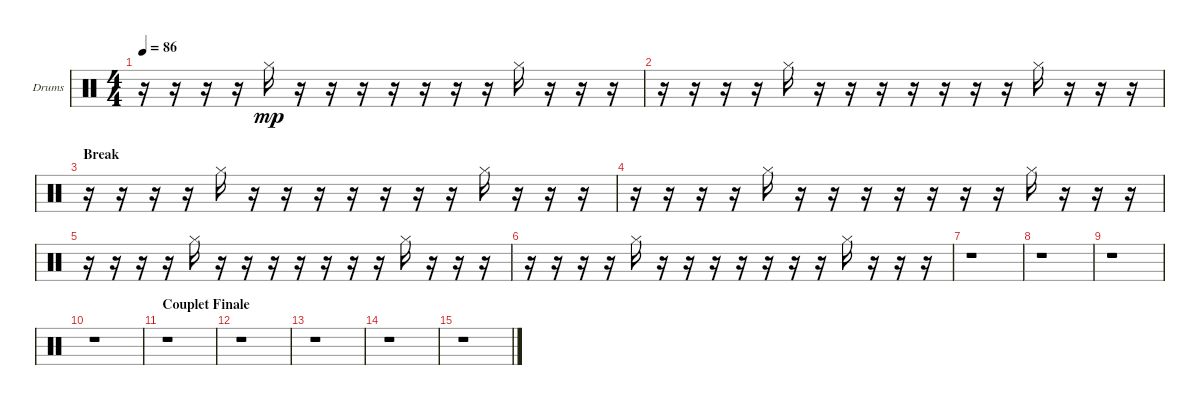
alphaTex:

\bracketExtendMode groupsimilarinstruments
\firstSystemTrackNameOrientation horizontal
\otherSystemsTrackNameOrientation horizontal
\track ("Drumkit" "Drums") {instrument percussion}
\staff {score}
\articulation defaults
\ts (4 4)
\tempo 86
\clef neutral
\ks c
r.16{dy mp} r.16 r.16 r.16 "Hi-Hat (closed)".16 r.16 r.16 r.16 r.16 r.16 r.16 r.16 "Hi-Hat (closed)".16 r.16 r.16 r.16 |
r.16 r.16 r.16 r.16 "Hi-Hat (closed)".16 r.16 r.16 r.16 r.16 r.16 r.16 r.16 "Hi-Hat (closed)".16 r.16 r.16 r.16 |
\section ("" "Break")
r.16 r.16 r.16 r.16 "Hi-Hat (closed)".16 r.16 r.16 r.16 r.16 r.16 r.16 r.16 "Hi-Hat (closed)".16 r.16 r.16 r.16 |
r.16 r.16 r.16 r.16 "Hi-Hat (closed)".16 r.16 r.16 r.16 r.16 r.16 r.16 r.16 "Hi-Hat (closed)".16 r.16 r.16 r.16 |
r.16 r.16 r.16 r.16 "Hi-Hat (closed)".16 r.16 r.16 r.16 r.16 r.16 r.16 r.16 "Hi-Hat (closed)".16 r.16 r.16 r.16 |
r.16 r.16 r.16 r.16 "Hi-Hat (closed)".16 r.16 r.16 r.16 r.16 r.16 r.16 r.16 "Hi-Hat (closed)".16 r.16 r.16 r.16 |
r.1 |
r.1 |
r.1 |
r.1 |
\section ("" "Couplet Finale")
r.1 |
r.1 |
r.1 |
r.1 |
r.1
